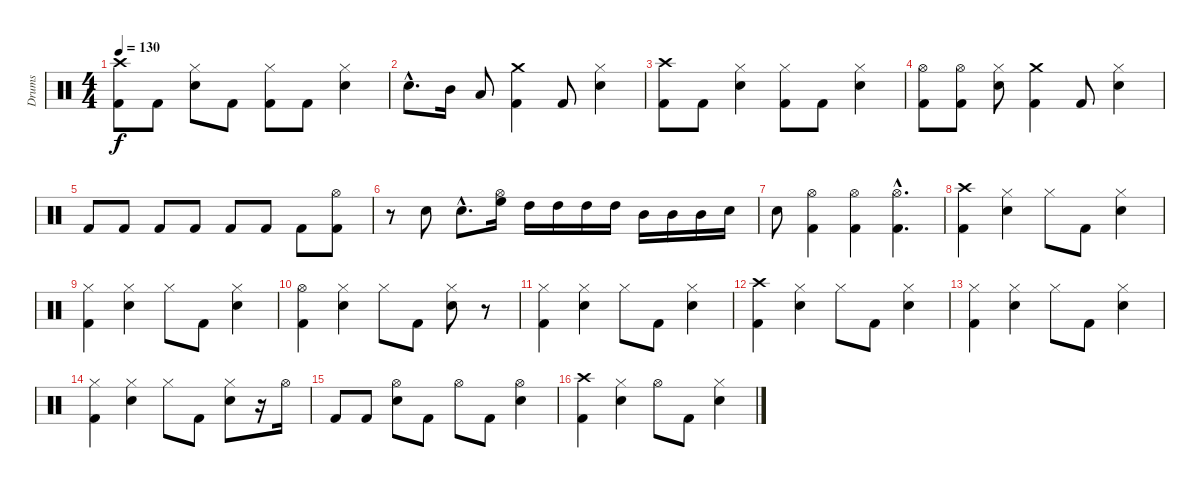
\track ("Drums" "Drums") {instrument percussion}
\staff {score}
\articulation defaults
\ts (4 4)
\tempo 130
\clef neutral
\ks c
("Kick (hit) 2" "Crash high (hit)").8{dy f} "Kick (hit) 2".8 ("Snare (hit) 2" "Hi-Hat (closed)").8 "Kick (hit) 2".8 ("Kick (hit) 2" "Hi-Hat (closed)").8 "Kick (hit) 2".8 ("Snare (hit) 2" "Hi-Hat (closed)").4 |
"Snare (hit) 2"{hac}.8{d} "Mid Tom (hit)".16 "Low Tom (hit)".8 ("Kick (hit) 2" "Crash medium (hit)").4 "Kick (hit) 2".8 ("Snare (hit) 2" "Hi-Hat (closed)").4 |
("Kick (hit) 2" "Crash high (hit)").8 "Kick (hit) 2".8 ("Snare (hit) 2" "Hi-Hat (closed)").4 ("Kick (hit) 2" "Hi-Hat (closed)").8 "Kick (hit) 2".8 ("Snare (hit) 2" "Hi-Hat (closed)").4 |
("Kick (hit) 2" "Hi-Hat (open)").8 ("Kick (hit) 2" "Hi-Hat (open)").8 ("Snare (hit) 2" "Hi-Hat (closed)").8 ("Kick (hit) 2" "Crash medium (hit)").4 "Kick (hit) 2".8 ("Snare (hit) 2" "Hi-Hat (closed)").4 |
"Kick (hit) 2".8 "Kick (hit) 2".8 "Kick (hit) 2".8 "Kick (hit) 2".8 "Kick (hit) 2".8 "Kick (hit) 2".8 "Kick (hit) 2".8 ("Kick (hit) 2" "Hi-Hat (open)").8 |
r.8 "Snare (hit) 2".8 "Snare (hit) 2"{hac}.8{d} ("Hi-Hat (open)" "High Floor Tom (hit)").16 "High Tom (hit)".16 "High Tom (hit)".16 "High Tom (hit)".16 "High Tom (hit)".16 "Mid Tom (hit)".16 "Mid Tom (hit)".16 "Mid Tom (hit)".16 "Snare (hit) 2".16 |
"Snare (hit) 2".8 ("Kick (hit) 2" "Hi-Hat (open)").4 ("Kick (hit) 2" "Hi-Hat (open)").4 ("Kick (hit) 2"{hac} "Hi-Hat (open)"{hac}).4{d} |
("Kick (hit) 2" "Crash high (hit)").4 ("Snare (hit) 2" "Hi-Hat (closed)").4 "Hi-Hat (closed)".8 "Kick (hit) 2".8 ("Snare (hit) 2" "Hi-Hat (closed)").4 |
("Kick (hit) 2" "Hi-Hat (closed)").4 ("Snare (hit) 2" "Hi-Hat (closed)").4 "Hi-Hat (closed)".8 "Kick (hit) 2".8 ("Snare (hit) 2" "Hi-Hat (closed)").4 |
("Kick (hit) 2" "Hi-Hat (open)").4 ("Snare (hit) 2" "Hi-Hat (closed)").4 "Hi-Hat (closed)".8 "Kick (hit) 2".8 ("Snare (hit) 2" "Hi-Hat (closed)").8 r.8 |
("Kick (hit) 2" "Hi-Hat (closed)").4 ("Snare (hit) 2" "Hi-Hat (closed)").4 "Hi-Hat (closed)".8 "Kick (hit) 2".8 ("Snare (hit) 2" "Hi-Hat (closed)").4 |
("Kick (hit) 2" "Crash high (hit)").4 ("Snare (hit) 2" "Hi-Hat (closed)").4 "Hi-Hat (closed)".8 "Kick (hit) 2".8 ("Snare (hit) 2" "Hi-Hat (closed)").4 |
("Kick (hit) 2" "Hi-Hat (closed)").4 ("Snare (hit) 2" "Hi-Hat (closed)").4 "Hi-Hat (closed)".8 "Kick (hit) 2".8 ("Snare (hit) 2" "Hi-Hat (closed)").4 |
("Kick (hit) 2" "Hi-Hat (closed)").4 ("Snare (hit) 2" "Hi-Hat (closed)").4 "Hi-Hat (closed)".8 "Kick (hit) 2".8 ("Snare (hit) 2" "Hi-Hat (closed)").8 r.16 "Hi-Hat (open)".16 |
"Kick (hit) 2".8 "Kick (hit) 2".8 ("Snare (hit) 2" "Hi-Hat (open)").8 "Kick (hit) 2".8 "Hi-Hat (open)".8 "Kick (hit) 2".8 ("Snare (hit) 2" "Hi-Hat (open)").4 |
("Kick (hit) 2" "Crash high (hit)").4 ("Snare (hit) 2" "Hi-Hat (closed)").4 "Hi-Hat (open)".8 "Kick (hit) 2".8 ("Snare (hit) 2" "Hi-Hat (closed)").4
